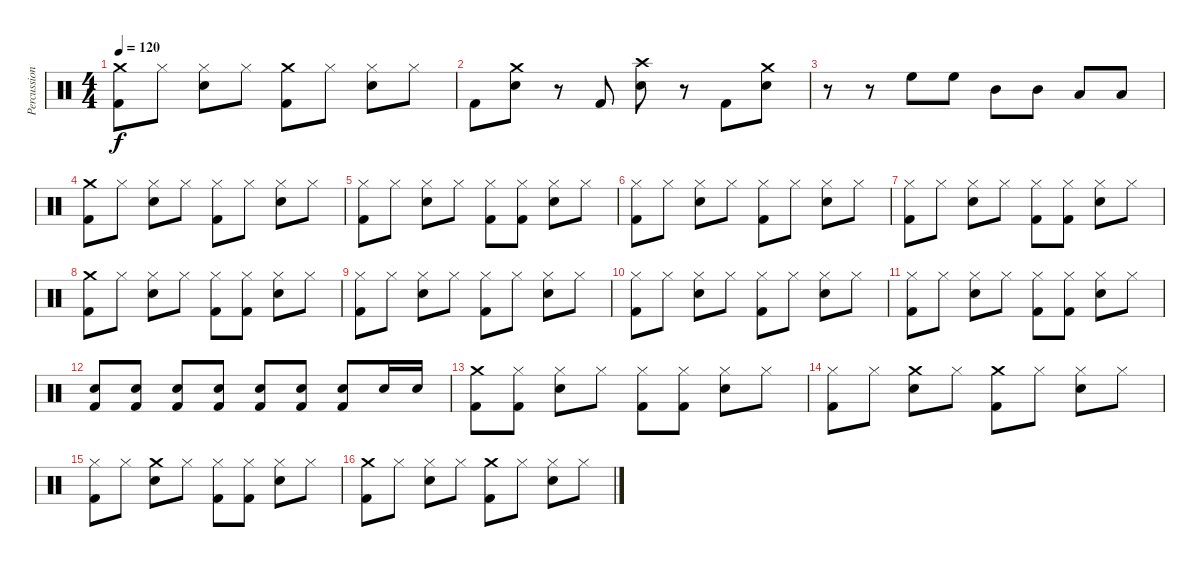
\track ("Percussions" "Percussion") {instrument percussion}
\staff {score}
\articulation defaults
\ts (4 4)
\tempo 120
\clef neutral
\ks c
("Crash medium (hit)" "Kick (hit) 2").8{dy f} "Hi-Hat (closed)".8 ("Hi-Hat (closed)" "Electric Snare (hit)").8 "Hi-Hat (closed)".8 ("Crash medium (hit)" "Kick (hit) 2").8 "Hi-Hat (closed)".8 ("Hi-Hat (closed)" "Electric Snare (hit)").8 "Hi-Hat (closed)".8 |
"Kick (hit) 2".8 ("Crash medium (hit)" "Electric Snare (hit)").8 r.8 "Kick (hit) 2".8 ("Crash high (hit)" "Electric Snare (hit)").8 r.8 "Kick (hit) 2".8 ("Crash medium (hit)" "Electric Snare (hit)").8 |
r.8 r.8 "High Floor Tom (hit)".8 "High Floor Tom (hit)".8 "Mid Tom (hit)".8 "Mid Tom (hit)".8 "Low Tom (hit)".8 "Low Tom (hit)".8 |
("Crash medium (hit)" "Kick (hit) 2").8 "Hi-Hat (closed)".8 ("Hi-Hat (closed)" "Electric Snare (hit)").8 "Hi-Hat (closed)".8 ("Hi-Hat (closed)" "Kick (hit) 2").8 "Hi-Hat (closed)".8 ("Hi-Hat (closed)" "Electric Snare (hit)").8 "Hi-Hat (closed)".8 |
("Hi-Hat (closed)" "Kick (hit) 2").8 "Hi-Hat (closed)".8 ("Hi-Hat (closed)" "Electric Snare (hit)").8 "Hi-Hat (closed)".8 ("Hi-Hat (closed)" "Kick (hit) 2").8 ("Hi-Hat (closed)" "Kick (hit) 2").8 ("Hi-Hat (closed)" "Electric Snare (hit)").8 "Hi-Hat (closed)".8 |
("Hi-Hat (closed)" "Kick (hit) 2").8 "Hi-Hat (closed)".8 ("Hi-Hat (closed)" "Electric Snare (hit)").8 "Hi-Hat (closed)".8 ("Hi-Hat (closed)" "Kick (hit) 2").8 "Hi-Hat (closed)".8 ("Hi-Hat (closed)" "Electric Snare (hit)").8 "Hi-Hat (closed)".8 |
("Hi-Hat (closed)" "Kick (hit) 2").8 "Hi-Hat (closed)".8 ("Hi-Hat (closed)" "Electric Snare (hit)").8 "Hi-Hat (closed)".8 ("Hi-Hat (closed)" "Kick (hit) 2").8 ("Hi-Hat (closed)" "Kick (hit) 2").8 ("Hi-Hat (closed)" "Electric Snare (hit)").8 "Hi-Hat (closed)".8 |
("Crash medium (hit)" "Kick (hit) 2").8 "Hi-Hat (closed)".8 ("Hi-Hat (closed)" "Electric Snare (hit)").8 "Hi-Hat (closed)".8 ("Hi-Hat (closed)" "Kick (hit) 2").8 ("Hi-Hat (closed)" "Kick (hit) 2").8 ("Hi-Hat (closed)" "Electric Snare (hit)").8 "Hi-Hat (closed)".8 |
("Hi-Hat (closed)" "Kick (hit) 2").8 "Hi-Hat (closed)".8 ("Hi-Hat (closed)" "Electric Snare (hit)").8 "Hi-Hat (closed)".8 ("Hi-Hat (closed)" "Kick (hit) 2").8 "Hi-Hat (closed)".8 ("Hi-Hat (closed)" "Electric Snare (hit)").8 "Hi-Hat (closed)".8 |
("Hi-Hat (closed)" "Kick (hit) 2").8 "Hi-Hat (closed)".8 ("Hi-Hat (closed)" "Electric Snare (hit)").8 "Hi-Hat (closed)".8 ("Hi-Hat (closed)" "Kick (hit) 2").8 "Hi-Hat (closed)".8 ("Hi-Hat (closed)" "Electric Snare (hit)").8 "Hi-Hat (closed)".8 |
("Hi-Hat (closed)" "Kick (hit) 2").8 "Hi-Hat (closed)".8 ("Hi-Hat (closed)" "Electric Snare (hit)").8 "Hi-Hat (closed)".8 ("Hi-Hat (closed)" "Kick (hit) 2").8 ("Hi-Hat (closed)" "Kick (hit) 2").8 ("Hi-Hat (closed)" "Electric Snare (hit)").8 "Hi-Hat (closed)".8 |
("Electric Snare (hit)" "Kick (hit) 2").8 ("Electric Snare (hit)" "Kick (hit) 2").8 ("Electric Snare (hit)" "Kick (hit) 2").8 ("Electric Snare (hit)" "Kick (hit) 2").8 ("Electric Snare (hit)" "Kick (hit) 2").8 ("Electric Snare (hit)" "Kick (hit) 2").8 ("Electric Snare (hit)" "Kick (hit) 2").8 "Electric Snare (hit)".16 "Electric Snare (hit)".16 |
("Crash medium (hit)" "Kick (hit) 2").8 ("Hi-Hat (closed)" "Kick (hit) 2").8 ("Hi-Hat (closed)" "Electric Snare (hit)").8 "Hi-Hat (closed)".8 ("Hi-Hat (closed)" "Kick (hit) 2").8 ("Hi-Hat (closed)" "Kick (hit) 2").8 ("Hi-Hat (closed)" "Electric Snare (hit)").8 "Hi-Hat (closed)".8 |
("Hi-Hat (closed)" "Kick (hit) 2").8 "Hi-Hat (closed)".8 ("Crash medium (hit)" "Electric Snare (hit)").8 "Hi-Hat (closed)".8 ("Crash medium (hit)" "Kick (hit) 2").8 "Hi-Hat (closed)".8 ("Hi-Hat (closed)" "Electric Snare (hit)").8 "Hi-Hat (closed)".8 |
("Hi-Hat (closed)" "Kick (hit) 2").8 "Hi-Hat (closed)".8 ("Crash medium (hit)" "Electric Snare (hit)").8 "Hi-Hat (closed)".8 ("Hi-Hat (closed)" "Kick (hit) 2").8 ("Hi-Hat (closed)" "Kick (hit) 2").8 ("Hi-Hat (closed)" "Electric Snare (hit)").8 "Hi-Hat (closed)".8 |
("Crash medium (hit)" "Kick (hit) 2").8 "Hi-Hat (closed)".8 ("Hi-Hat (closed)" "Electric Snare (hit)").8 "Hi-Hat (closed)".8 ("Crash medium (hit)" "Kick (hit) 2").8 "Hi-Hat (closed)".8 ("Hi-Hat (closed)" "Electric Snare (hit)").8 "Hi-Hat (closed)".8
